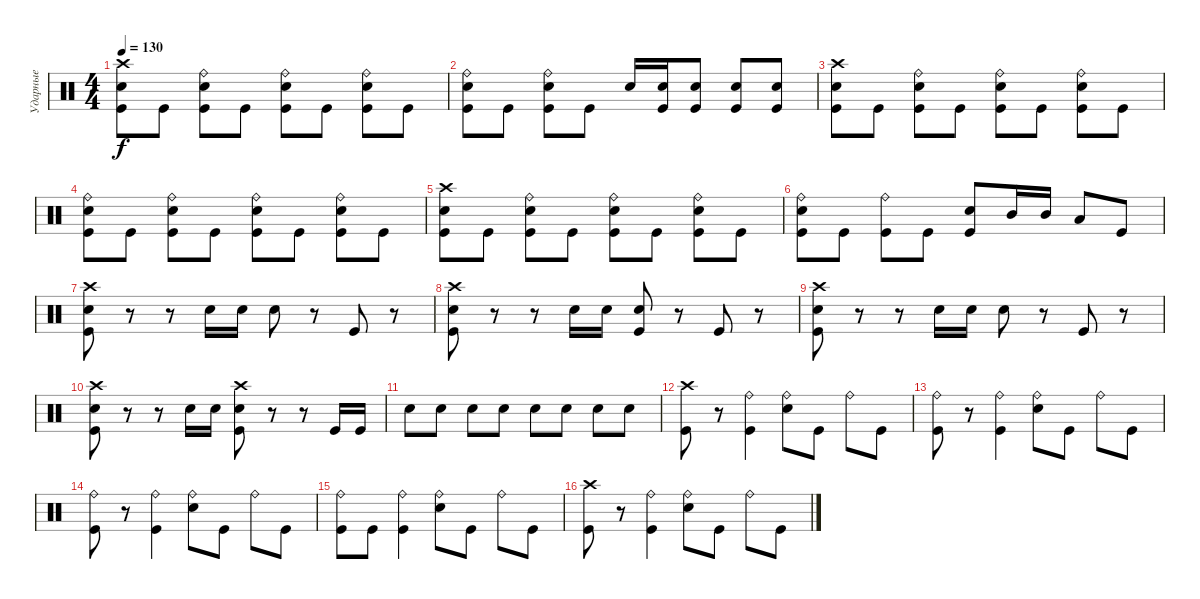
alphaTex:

\track ("Ударные" "Ударные") {instrument percussion}
\staff {score}
\articulation defaults
\ts (4 4)
\tempo 130
\clef neutral
\ks c
("Crash high (hit)" "Electric Snare (hit)" "Kick (hit)").8{dy f} "Kick (hit)".8 ("Ride (bell)" "Electric Snare (hit)" "Kick (hit)").8 "Kick (hit)".8 ("Ride (bell)" "Electric Snare (hit)" "Kick (hit)").8 "Kick (hit)".8 ("Ride (bell)" "Electric Snare (hit)" "Kick (hit)").8 "Kick (hit)".8 |
("Ride (bell)" "Electric Snare (hit)" "Kick (hit)").8 "Kick (hit)".8 ("Ride (bell)" "Electric Snare (hit)" "Kick (hit)").8 "Kick (hit)".8 "Electric Snare (hit)".16 ("Electric Snare (hit)" "Kick (hit)").16 ("Electric Snare (hit)" "Kick (hit)").8 ("Electric Snare (hit)" "Kick (hit)").8 ("Electric Snare (hit)" "Kick (hit)").8 |
("Crash high (hit)" "Electric Snare (hit)" "Kick (hit)").8 "Kick (hit)".8 ("Ride (bell)" "Electric Snare (hit)" "Kick (hit)").8 "Kick (hit)".8 ("Ride (bell)" "Electric Snare (hit)" "Kick (hit)").8 "Kick (hit)".8 ("Ride (bell)" "Electric Snare (hit)" "Kick (hit)").8 "Kick (hit)".8 |
("Ride (bell)" "Electric Snare (hit)" "Kick (hit)").8 "Kick (hit)".8 ("Ride (bell)" "Electric Snare (hit)" "Kick (hit)").8 "Kick (hit)".8 ("Ride (bell)" "Electric Snare (hit)" "Kick (hit)").8 "Kick (hit)".8 ("Ride (bell)" "Electric Snare (hit)" "Kick (hit)").8 "Kick (hit)".8 |
("Crash high (hit)" "Electric Snare (hit)" "Kick (hit)").8 "Kick (hit)".8 ("Ride (bell)" "Electric Snare (hit)" "Kick (hit)").8 "Kick (hit)".8 ("Ride (bell)" "Electric Snare (hit)" "Kick (hit)").8 "Kick (hit)".8 ("Ride (bell)" "Electric Snare (hit)" "Kick (hit)").8 "Kick (hit)".8 |
("Ride (bell)" "Electric Snare (hit)" "Kick (hit)").8 "Kick (hit)".8 ("Ride (bell)" "Kick (hit)").8 "Kick (hit)".8 ("Electric Snare (hit)" "Kick (hit)").8 "Mid Tom (hit)".16 "Mid Tom (hit)".16 "Low Tom (hit)".8 "Kick (hit)".8 |
("Crash high (hit)" "Electric Snare (hit)" "Kick (hit)").8 r.8 r.8 "Electric Snare (hit)".16 "Electric Snare (hit)".16 "Electric Snare (hit)".8 r.8 "Kick (hit)".8 r.8 |
("Crash high (hit)" "Electric Snare (hit)" "Kick (hit)").8 r.8 r.8 "Electric Snare (hit)".16 "Electric Snare (hit)".16 ("Electric Snare (hit)" "Kick (hit)").8 r.8 "Kick (hit)".8 r.8 |
("Crash high (hit)" "Electric Snare (hit)" "Kick (hit)").8 r.8 r.8 "Electric Snare (hit)".16 "Electric Snare (hit)".16 "Electric Snare (hit)".8 r.8 "Kick (hit)".8 r.8 |
("Crash high (hit)" "Electric Snare (hit)" "Kick (hit)").8 r.8 r.8 "Electric Snare (hit)".16 "Electric Snare (hit)".16 ("Crash high (hit)" "Electric Snare (hit)" "Kick (hit)").8 r.8 r.8 "Kick (hit)".16 "Kick (hit)".16 |
"Electric Snare (hit)".8 "Electric Snare (hit)".8 "Electric Snare (hit)".8 "Electric Snare (hit)".8 "Electric Snare (hit)".8 "Electric Snare (hit)".8 "Electric Snare (hit)".8 "Electric Snare (hit)".8 |
("Crash high (hit)" "Kick (hit)").8 r.8 ("Ride (bell)" "Kick (hit)").4 ("Ride (bell)" "Electric Snare (hit)").8 "Kick (hit)".8 "Ride (bell)".8 "Kick (hit)".8 |
("Ride (bell)" "Kick (hit)").8 r.8 ("Ride (bell)" "Kick (hit)").4 ("Ride (bell)" "Electric Snare (hit)").8 "Kick (hit)".8 "Ride (bell)".8 "Kick (hit)".8 |
("Ride (bell)" "Kick (hit)").8 r.8 ("Ride (bell)" "Kick (hit)").4 ("Ride (bell)" "Electric Snare (hit)").8 "Kick (hit)".8 "Ride (bell)".8 "Kick (hit)".8 |
("Ride (bell)" "Kick (hit)").8 "Kick (hit)".8 ("Ride (bell)" "Kick (hit)").4 ("Ride (bell)" "Electric Snare (hit)").8 "Kick (hit)".8 "Ride (bell)".8 "Kick (hit)".8 |
("Crash high (hit)" "Kick (hit)").8 r.8 ("Ride (bell)" "Kick (hit)").4 ("Ride (bell)" "Electric Snare (hit)").8 "Kick (hit)".8 "Ride (bell)".8 "Kick (hit)".8
